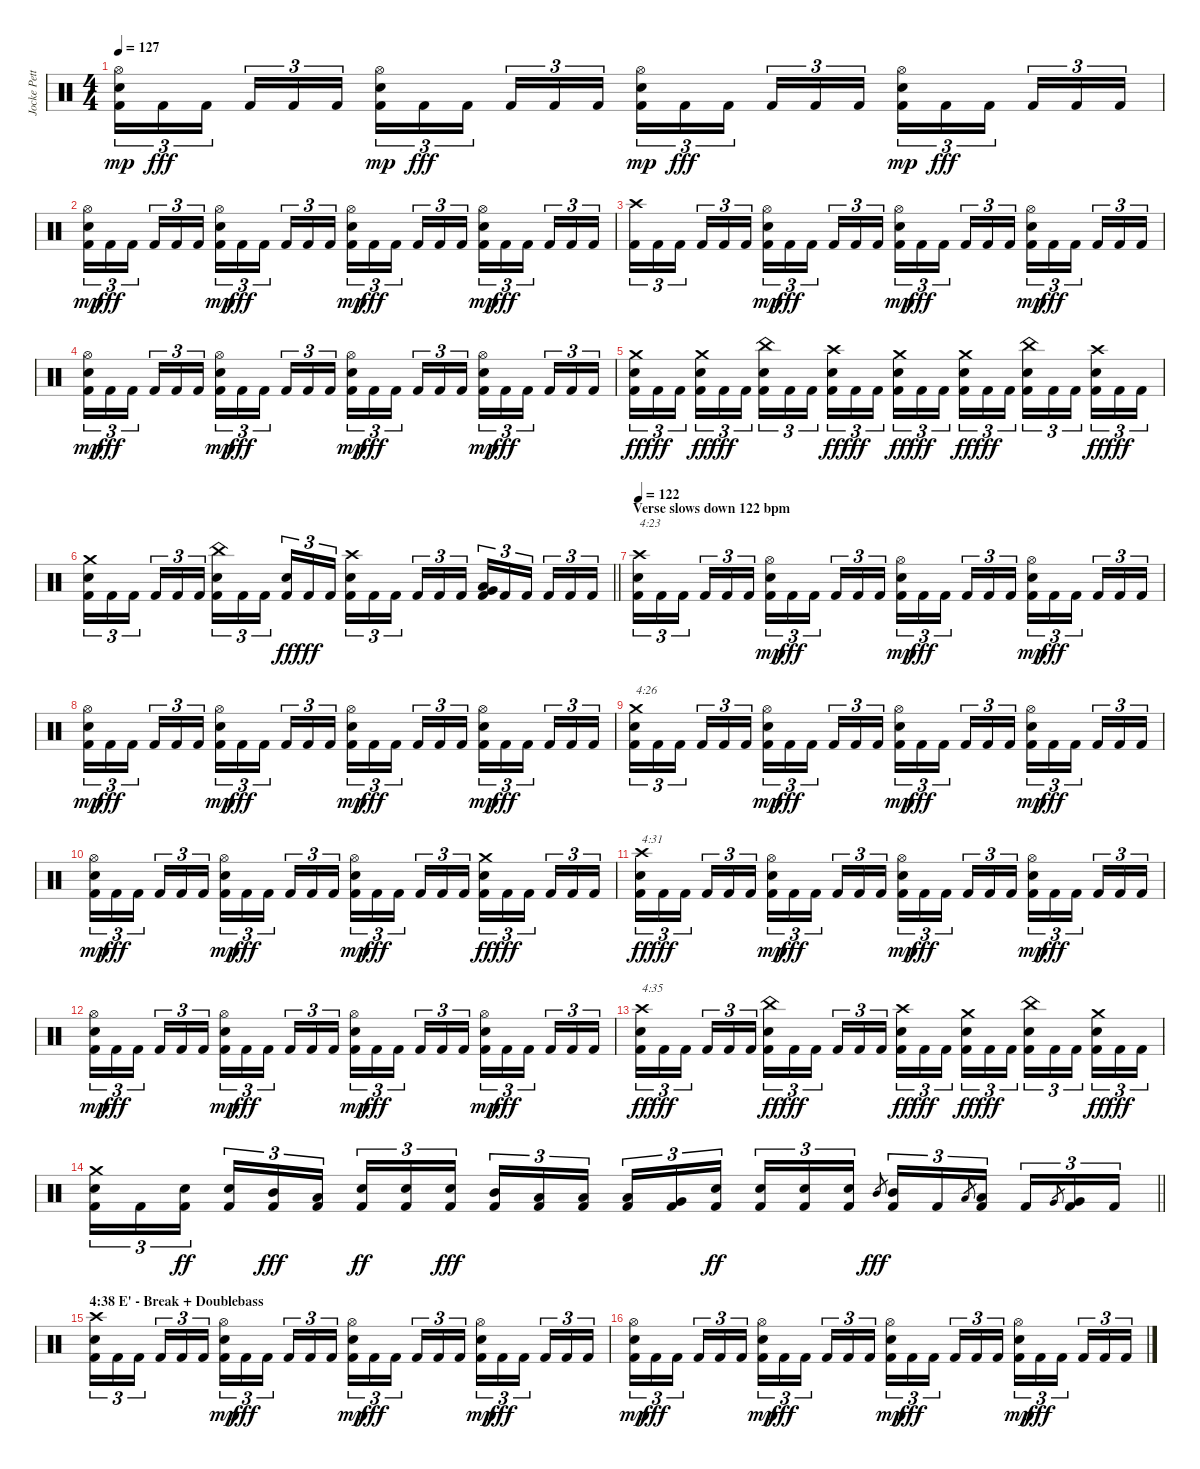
\track ("Jocke Pettersson" "Jocke Pett") {instrument percussion}
\staff {score}
\articulation defaults
\ts (4 4)
\tempo 127
\clef neutral
\ks c
("Kick (hit) 2" "Electric Snare (hit)" "Hi-Hat (open)").16{tu (3 2) dy mp} "Kick (hit) 2".16{tu (3 2) dy fff} "Kick (hit) 2".16{tu (3 2) beam splitsecondary} "Kick (hit) 2".16{tu (3 2)} "Kick (hit) 2".16{tu (3 2)} "Kick (hit) 2".16{tu (3 2)} ("Kick (hit) 2" "Electric Snare (hit)" "Hi-Hat (open)").16{tu (3 2) dy mp} "Kick (hit) 2".16{tu (3 2) dy fff} "Kick (hit) 2".16{tu (3 2) beam splitsecondary} "Kick (hit) 2".16{tu (3 2)} "Kick (hit) 2".16{tu (3 2)} "Kick (hit) 2".16{tu (3 2)} ("Kick (hit) 2" "Electric Snare (hit)" "Hi-Hat (open)").16{tu (3 2) dy mp} "Kick (hit) 2".16{tu (3 2) dy fff} "Kick (hit) 2".16{tu (3 2) beam splitsecondary} "Kick (hit) 2".16{tu (3 2)} "Kick (hit) 2".16{tu (3 2)} "Kick (hit) 2".16{tu (3 2)} ("Kick (hit) 2" "Electric Snare (hit)" "Hi-Hat (open)").16{tu (3 2) dy mp} "Kick (hit) 2".16{tu (3 2) dy fff} "Kick (hit) 2".16{tu (3 2) beam splitsecondary} "Kick (hit) 2".16{tu (3 2)} "Kick (hit) 2".16{tu (3 2)} "Kick (hit) 2".16{tu (3 2)} |
("Kick (hit) 2" "Electric Snare (hit)" "Hi-Hat (open)").16{tu (3 2) dy mp} "Kick (hit) 2".16{tu (3 2) dy fff} "Kick (hit) 2".16{tu (3 2) beam splitsecondary} "Kick (hit) 2".16{tu (3 2)} "Kick (hit) 2".16{tu (3 2)} "Kick (hit) 2".16{tu (3 2)} ("Kick (hit) 2" "Electric Snare (hit)" "Hi-Hat (open)").16{tu (3 2) dy mp} "Kick (hit) 2".16{tu (3 2) dy fff} "Kick (hit) 2".16{tu (3 2) beam splitsecondary} "Kick (hit) 2".16{tu (3 2)} "Kick (hit) 2".16{tu (3 2)} "Kick (hit) 2".16{tu (3 2)} ("Kick (hit) 2" "Electric Snare (hit)" "Hi-Hat (open)").16{tu (3 2) dy mp} "Kick (hit) 2".16{tu (3 2) dy fff} "Kick (hit) 2".16{tu (3 2) beam splitsecondary} "Kick (hit) 2".16{tu (3 2)} "Kick (hit) 2".16{tu (3 2)} "Kick (hit) 2".16{tu (3 2)} ("Kick (hit) 2" "Electric Snare (hit)" "Hi-Hat (open)").16{tu (3 2) dy mp} "Kick (hit) 2".16{tu (3 2) dy fff} "Kick (hit) 2".16{tu (3 2) beam splitsecondary} "Kick (hit) 2".16{tu (3 2)} "Kick (hit) 2".16{tu (3 2)} "Kick (hit) 2".16{tu (3 2)} |
("Kick (hit) 2" "Crash high (hit)").16{tu (3 2)} "Kick (hit) 2".16{tu (3 2)} "Kick (hit) 2".16{tu (3 2) beam splitsecondary} "Kick (hit) 2".16{tu (3 2)} "Kick (hit) 2".16{tu (3 2)} "Kick (hit) 2".16{tu (3 2)} ("Kick (hit) 2" "Electric Snare (hit)" "Hi-Hat (open)").16{tu (3 2) dy mp} "Kick (hit) 2".16{tu (3 2) dy fff} "Kick (hit) 2".16{tu (3 2) beam splitsecondary} "Kick (hit) 2".16{tu (3 2)} "Kick (hit) 2".16{tu (3 2)} "Kick (hit) 2".16{tu (3 2)} ("Kick (hit) 2" "Electric Snare (hit)" "Hi-Hat (open)").16{tu (3 2) dy mp} "Kick (hit) 2".16{tu (3 2) dy fff} "Kick (hit) 2".16{tu (3 2) beam splitsecondary} "Kick (hit) 2".16{tu (3 2)} "Kick (hit) 2".16{tu (3 2)} "Kick (hit) 2".16{tu (3 2)} ("Kick (hit) 2" "Electric Snare (hit)" "Hi-Hat (open)").16{tu (3 2) dy mp} "Kick (hit) 2".16{tu (3 2) dy fff} "Kick (hit) 2".16{tu (3 2) beam splitsecondary} "Kick (hit) 2".16{tu (3 2)} "Kick (hit) 2".16{tu (3 2)} "Kick (hit) 2".16{tu (3 2)} |
("Kick (hit) 2" "Electric Snare (hit)" "Hi-Hat (open)").16{tu (3 2) dy mp} "Kick (hit) 2".16{tu (3 2) dy fff} "Kick (hit) 2".16{tu (3 2) beam splitsecondary} "Kick (hit) 2".16{tu (3 2)} "Kick (hit) 2".16{tu (3 2)} "Kick (hit) 2".16{tu (3 2)} ("Kick (hit) 2" "Electric Snare (hit)" "Hi-Hat (open)").16{tu (3 2) dy mp} "Kick (hit) 2".16{tu (3 2) dy fff} "Kick (hit) 2".16{tu (3 2) beam splitsecondary} "Kick (hit) 2".16{tu (3 2)} "Kick (hit) 2".16{tu (3 2)} "Kick (hit) 2".16{tu (3 2)} ("Kick (hit) 2" "Electric Snare (hit)" "Hi-Hat (open)").16{tu (3 2) dy mp} "Kick (hit) 2".16{tu (3 2) dy fff} "Kick (hit) 2".16{tu (3 2) beam splitsecondary} "Kick (hit) 2".16{tu (3 2)} "Kick (hit) 2".16{tu (3 2)} "Kick (hit) 2".16{tu (3 2)} ("Kick (hit) 2" "Electric Snare (hit)" "Hi-Hat (open)").16{tu (3 2) dy mp} "Kick (hit) 2".16{tu (3 2) dy fff} "Kick (hit) 2".16{tu (3 2) beam splitsecondary} "Kick (hit) 2".16{tu (3 2)} "Kick (hit) 2".16{tu (3 2)} "Kick (hit) 2".16{tu (3 2)} |
("Kick (hit) 2" "Electric Snare (hit)" "Crash medium (hit)").16{tu (3 2) dy ff} "Kick (hit) 2".16{tu (3 2) dy fff} "Kick (hit) 2".16{tu (3 2) beam splitsecondary} ("Kick (hit) 2" "Electric Snare (hit)" "Crash medium (hit)").16{tu (3 2) dy ff} "Kick (hit) 2".16{tu (3 2) dy fff} "Kick (hit) 2".16{tu (3 2)} ("Kick (hit) 2" "Electric Snare (hit)" "China (hit)").16{tu (3 2)} "Kick (hit) 2".16{tu (3 2)} "Kick (hit) 2".16{tu (3 2) beam splitsecondary} ("Kick (hit) 2" "Electric Snare (hit)" "Crash high (hit)").16{tu (3 2) dy ff} "Kick (hit) 2".16{tu (3 2) dy fff} "Kick (hit) 2".16{tu (3 2)} ("Kick (hit) 2" "Electric Snare (hit)" "Crash medium (hit)").16{tu (3 2) dy ff} "Kick (hit) 2".16{tu (3 2) dy fff} "Kick (hit) 2".16{tu (3 2) beam splitsecondary} ("Kick (hit) 2" "Electric Snare (hit)" "Crash medium (hit)").16{tu (3 2) dy ff} "Kick (hit) 2".16{tu (3 2) dy fff} "Kick (hit) 2".16{tu (3 2)} ("Kick (hit) 2" "Electric Snare (hit)" "China (hit)").16{tu (3 2)} "Kick (hit) 2".16{tu (3 2)} "Kick (hit) 2".16{tu (3 2) beam splitsecondary} ("Kick (hit) 2" "Electric Snare (hit)" "Crash high (hit)").16{tu (3 2) dy ff} "Kick (hit) 2".16{tu (3 2) dy fff} "Kick (hit) 2".16{tu (3 2)} |
\barLineRight lightlight
("Kick (hit) 2" "Electric Snare (hit)" "Crash medium (hit)").16{tu (3 2)} "Kick (hit) 2".16{tu (3 2)} "Kick (hit) 2".16{tu (3 2) beam splitsecondary} "Kick (hit) 2".16{tu (3 2)} "Kick (hit) 2".16{tu (3 2)} "Kick (hit) 2".16{tu (3 2)} ("Kick (hit) 2" "Electric Snare (hit)" "China (hit)").16{tu (3 2)} "Kick (hit) 2".16{tu (3 2)} "Kick (hit) 2".16{tu (3 2) beam splitsecondary} ("Kick (hit) 2" "Electric Snare (hit)").16{tu (3 2) dy ff} "Kick (hit) 2".16{tu (3 2) dy fff} "Kick (hit) 2".16{tu (3 2)} ("Kick (hit) 2" "Electric Snare (hit)" "Crash high (hit)").16{tu (3 2)} "Kick (hit) 2".16{tu (3 2)} "Kick (hit) 2".16{tu (3 2) beam splitsecondary} "Kick (hit) 2".16{tu (3 2)} "Kick (hit) 2".16{tu (3 2)} "Kick (hit) 2".16{tu (3 2)} ("Kick (hit) 2" "Low Tom (hit)" "Very Low Tom (hit)").16{tu (3 2)} "Kick (hit) 2".16{tu (3 2)} "Kick (hit) 2".16{tu (3 2) beam splitsecondary} "Kick (hit) 2".16{tu (3 2)} "Kick (hit) 2".16{tu (3 2)} "Kick (hit) 2".16{tu (3 2)} |
\section ("" "Verse slows down 122 bpm")
\tempo 122
("Kick (hit) 2" "Electric Snare (hit)" "Crash high (hit)").16{tu (3 2) txt "4:23"} "Kick (hit) 2".16{tu (3 2)} "Kick (hit) 2".16{tu (3 2) beam splitsecondary} "Kick (hit) 2".16{tu (3 2)} "Kick (hit) 2".16{tu (3 2)} "Kick (hit) 2".16{tu (3 2)} ("Kick (hit) 2" "Electric Snare (hit)" "Hi-Hat (open)").16{tu (3 2) dy mp} "Kick (hit) 2".16{tu (3 2) dy fff} "Kick (hit) 2".16{tu (3 2) beam splitsecondary} "Kick (hit) 2".16{tu (3 2)} "Kick (hit) 2".16{tu (3 2)} "Kick (hit) 2".16{tu (3 2)} ("Kick (hit) 2" "Electric Snare (hit)" "Hi-Hat (open)").16{tu (3 2) dy mp} "Kick (hit) 2".16{tu (3 2) dy fff} "Kick (hit) 2".16{tu (3 2) beam splitsecondary} "Kick (hit) 2".16{tu (3 2)} "Kick (hit) 2".16{tu (3 2)} "Kick (hit) 2".16{tu (3 2)} ("Kick (hit) 2" "Electric Snare (hit)" "Hi-Hat (open)").16{tu (3 2) dy mp} "Kick (hit) 2".16{tu (3 2) dy fff} "Kick (hit) 2".16{tu (3 2) beam splitsecondary} "Kick (hit) 2".16{tu (3 2)} "Kick (hit) 2".16{tu (3 2)} "Kick (hit) 2".16{tu (3 2)} |
("Kick (hit) 2" "Electric Snare (hit)" "Hi-Hat (open)").16{tu (3 2) dy mp} "Kick (hit) 2".16{tu (3 2) dy fff} "Kick (hit) 2".16{tu (3 2) beam splitsecondary} "Kick (hit) 2".16{tu (3 2)} "Kick (hit) 2".16{tu (3 2)} "Kick (hit) 2".16{tu (3 2)} ("Kick (hit) 2" "Electric Snare (hit)" "Hi-Hat (open)").16{tu (3 2) dy mp} "Kick (hit) 2".16{tu (3 2) dy fff} "Kick (hit) 2".16{tu (3 2) beam splitsecondary} "Kick (hit) 2".16{tu (3 2)} "Kick (hit) 2".16{tu (3 2)} "Kick (hit) 2".16{tu (3 2)} ("Kick (hit) 2" "Electric Snare (hit)" "Hi-Hat (open)").16{tu (3 2) dy mp} "Kick (hit) 2".16{tu (3 2) dy fff} "Kick (hit) 2".16{tu (3 2) beam splitsecondary} "Kick (hit) 2".16{tu (3 2)} "Kick (hit) 2".16{tu (3 2)} "Kick (hit) 2".16{tu (3 2)} ("Kick (hit) 2" "Electric Snare (hit)" "Hi-Hat (open)").16{tu (3 2) dy mp} "Kick (hit) 2".16{tu (3 2) dy fff} "Kick (hit) 2".16{tu (3 2) beam splitsecondary} "Kick (hit) 2".16{tu (3 2)} "Kick (hit) 2".16{tu (3 2)} "Kick (hit) 2".16{tu (3 2)} |
("Kick (hit) 2" "Electric Snare (hit)" "Crash medium (hit)").16{tu (3 2) txt "4:26"} "Kick (hit) 2".16{tu (3 2)} "Kick (hit) 2".16{tu (3 2) beam splitsecondary} "Kick (hit) 2".16{tu (3 2)} "Kick (hit) 2".16{tu (3 2)} "Kick (hit) 2".16{tu (3 2)} ("Kick (hit) 2" "Electric Snare (hit)" "Hi-Hat (open)").16{tu (3 2) dy mp} "Kick (hit) 2".16{tu (3 2) dy fff} "Kick (hit) 2".16{tu (3 2) beam splitsecondary} "Kick (hit) 2".16{tu (3 2)} "Kick (hit) 2".16{tu (3 2)} "Kick (hit) 2".16{tu (3 2)} ("Kick (hit) 2" "Electric Snare (hit)" "Hi-Hat (open)").16{tu (3 2) dy mp} "Kick (hit) 2".16{tu (3 2) dy fff} "Kick (hit) 2".16{tu (3 2) beam splitsecondary} "Kick (hit) 2".16{tu (3 2)} "Kick (hit) 2".16{tu (3 2)} "Kick (hit) 2".16{tu (3 2)} ("Kick (hit) 2" "Electric Snare (hit)" "Hi-Hat (open)").16{tu (3 2) dy mp} "Kick (hit) 2".16{tu (3 2) dy fff} "Kick (hit) 2".16{tu (3 2) beam splitsecondary} "Kick (hit) 2".16{tu (3 2)} "Kick (hit) 2".16{tu (3 2)} "Kick (hit) 2".16{tu (3 2)} |
("Kick (hit) 2" "Electric Snare (hit)" "Hi-Hat (open)").16{tu (3 2) dy mp} "Kick (hit) 2".16{tu (3 2) dy fff} "Kick (hit) 2".16{tu (3 2) beam splitsecondary} "Kick (hit) 2".16{tu (3 2)} "Kick (hit) 2".16{tu (3 2)} "Kick (hit) 2".16{tu (3 2)} ("Kick (hit) 2" "Electric Snare (hit)" "Hi-Hat (open)").16{tu (3 2) dy mp} "Kick (hit) 2".16{tu (3 2) dy fff} "Kick (hit) 2".16{tu (3 2) beam splitsecondary} "Kick (hit) 2".16{tu (3 2)} "Kick (hit) 2".16{tu (3 2)} "Kick (hit) 2".16{tu (3 2)} ("Kick (hit) 2" "Electric Snare (hit)" "Hi-Hat (open)").16{tu (3 2) dy mp} "Kick (hit) 2".16{tu (3 2) dy fff} "Kick (hit) 2".16{tu (3 2) beam splitsecondary} "Kick (hit) 2".16{tu (3 2)} "Kick (hit) 2".16{tu (3 2)} "Kick (hit) 2".16{tu (3 2)} ("Kick (hit) 2" "Electric Snare (hit)" "Crash medium (hit)").16{tu (3 2) dy ff} "Kick (hit) 2".16{tu (3 2) dy fff} "Kick (hit) 2".16{tu (3 2) beam splitsecondary} "Kick (hit) 2".16{tu (3 2)} "Kick (hit) 2".16{tu (3 2)} "Kick (hit) 2".16{tu (3 2)} |
("Kick (hit) 2" "Electric Snare (hit)" "Crash high (hit)").16{tu (3 2) txt "4:31" dy ff} "Kick (hit) 2".16{tu (3 2) dy fff} "Kick (hit) 2".16{tu (3 2) beam splitsecondary} "Kick (hit) 2".16{tu (3 2)} "Kick (hit) 2".16{tu (3 2)} "Kick (hit) 2".16{tu (3 2)} ("Kick (hit) 2" "Electric Snare (hit)" "Hi-Hat (open)").16{tu (3 2) dy mp} "Kick (hit) 2".16{tu (3 2) dy fff} "Kick (hit) 2".16{tu (3 2) beam splitsecondary} "Kick (hit) 2".16{tu (3 2)} "Kick (hit) 2".16{tu (3 2)} "Kick (hit) 2".16{tu (3 2)} ("Kick (hit) 2" "Electric Snare (hit)" "Hi-Hat (open)").16{tu (3 2) dy mp} "Kick (hit) 2".16{tu (3 2) dy fff} "Kick (hit) 2".16{tu (3 2) beam splitsecondary} "Kick (hit) 2".16{tu (3 2)} "Kick (hit) 2".16{tu (3 2)} "Kick (hit) 2".16{tu (3 2)} ("Kick (hit) 2" "Electric Snare (hit)" "Hi-Hat (open)").16{tu (3 2) dy mp} "Kick (hit) 2".16{tu (3 2) dy fff} "Kick (hit) 2".16{tu (3 2) beam splitsecondary} "Kick (hit) 2".16{tu (3 2)} "Kick (hit) 2".16{tu (3 2)} "Kick (hit) 2".16{tu (3 2)} |
("Kick (hit) 2" "Electric Snare (hit)" "Hi-Hat (open)").16{tu (3 2) dy mp} "Kick (hit) 2".16{tu (3 2) dy fff} "Kick (hit) 2".16{tu (3 2) beam splitsecondary} "Kick (hit) 2".16{tu (3 2)} "Kick (hit) 2".16{tu (3 2)} "Kick (hit) 2".16{tu (3 2)} ("Kick (hit) 2" "Electric Snare (hit)" "Hi-Hat (open)").16{tu (3 2) dy mp} "Kick (hit) 2".16{tu (3 2) dy fff} "Kick (hit) 2".16{tu (3 2) beam splitsecondary} "Kick (hit) 2".16{tu (3 2)} "Kick (hit) 2".16{tu (3 2)} "Kick (hit) 2".16{tu (3 2)} ("Kick (hit) 2" "Electric Snare (hit)" "Hi-Hat (open)").16{tu (3 2) dy mp} "Kick (hit) 2".16{tu (3 2) dy fff} "Kick (hit) 2".16{tu (3 2) beam splitsecondary} "Kick (hit) 2".16{tu (3 2)} "Kick (hit) 2".16{tu (3 2)} "Kick (hit) 2".16{tu (3 2)} ("Kick (hit) 2" "Electric Snare (hit)" "Hi-Hat (open)").16{tu (3 2) dy mp} "Kick (hit) 2".16{tu (3 2) dy fff} "Kick (hit) 2".16{tu (3 2) beam splitsecondary} "Kick (hit) 2".16{tu (3 2)} "Kick (hit) 2".16{tu (3 2)} "Kick (hit) 2".16{tu (3 2)} |
("Kick (hit) 2" "Electric Snare (hit)" "Crash high (hit)").16{tu (3 2) txt "4:35" dy ff} "Kick (hit) 2".16{tu (3 2) dy fff} "Kick (hit) 2".16{tu (3 2) beam splitsecondary} "Kick (hit) 2".16{tu (3 2)} "Kick (hit) 2".16{tu (3 2)} "Kick (hit) 2".16{tu (3 2)} ("Kick (hit) 2" "Electric Snare (hit)" "China (hit)").16{tu (3 2) dy ff} "Kick (hit) 2".16{tu (3 2) dy fff} "Kick (hit) 2".16{tu (3 2) beam splitsecondary} "Kick (hit) 2".16{tu (3 2)} "Kick (hit) 2".16{tu (3 2)} "Kick (hit) 2".16{tu (3 2)} ("Kick (hit) 2" "Electric Snare (hit)" "Crash high (hit)").16{tu (3 2) dy ff} "Kick (hit) 2".16{tu (3 2) dy fff} "Kick (hit) 2".16{tu (3 2) beam splitsecondary} ("Kick (hit) 2" "Electric Snare (hit)" "Crash medium (hit)").16{tu (3 2) dy ff} "Kick (hit) 2".16{tu (3 2) dy fff} "Kick (hit) 2".16{tu (3 2)} ("Kick (hit) 2" "Electric Snare (hit)" "China (hit)").16{tu (3 2)} "Kick (hit) 2".16{tu (3 2)} "Kick (hit) 2".16{tu (3 2) beam splitsecondary} ("Kick (hit) 2" "Electric Snare (hit)" "Crash medium (hit)").16{tu (3 2) dy ff} "Kick (hit) 2".16{tu (3 2) dy fff} "Kick (hit) 2".16{tu (3 2)} |
\barLineRight lightlight
("Kick (hit) 2" "Electric Snare (hit)" "Crash medium (hit)").16{tu (3 2)} "Kick (hit) 2".16{tu (3 2)} ("Kick (hit) 2" "Electric Snare (hit)").16{tu (3 2) dy ff beam splitsecondary} ("Kick (hit) 2" "Electric Snare (hit)").16{tu (3 2)} ("Kick (hit) 2" "Mid Tom (hit)").16{tu (3 2) dy fff} ("Kick (hit) 2" "Low Tom (hit)").16{tu (3 2)} ("Kick (hit) 2" "Electric Snare (hit)").16{tu (3 2) dy ff} ("Kick (hit) 2" "Electric Snare (hit)").16{tu (3 2)} ("Kick (hit) 2" "Electric Snare (hit)").16{tu (3 2) dy fff beam splitsecondary} ("Kick (hit) 2" "Mid Tom (hit)").16{tu (3 2)} ("Kick (hit) 2" "Low Tom (hit)").16{tu (3 2)} ("Kick (hit) 2" "Low Tom (hit)").16{tu (3 2)} ("Kick (hit) 2" "Low Tom (hit)").16{tu (3 2)} ("Kick (hit) 2" "Very Low Tom (hit)").16{tu (3 2)} ("Kick (hit) 2" "Electric Snare (hit)").16{tu (3 2) dy ff beam splitsecondary} ("Kick (hit) 2" "Electric Snare (hit)").16{tu (3 2)} ("Kick (hit) 2" "Electric Snare (hit)").16{tu (3 2)} ("Kick (hit) 2" "Electric Snare (hit)").16{tu (3 2)} "Mid Tom (hit)".8{gr dy fff} ("Kick (hit) 2" "Mid Tom (hit)").16{tu (3 2)} "Kick (hit) 2".16{tu (3 2)} "Low Tom (hit)".8{gr} ("Kick (hit) 2" "Low Tom (hit)").16{tu (3 2) beam splitsecondary} "Kick (hit) 2".16{tu (3 2)} "Very Low Tom (hit)".8{gr} ("Kick (hit) 2" "Very Low Tom (hit)").16{tu (3 2)} "Kick (hit) 2".16{tu (3 2)} |
\section ("" "4:38 E' - Break + Doublebass")
("Kick (hit) 2" "Electric Snare (hit)" "Crash high (hit)").16{tu (3 2)} "Kick (hit) 2".16{tu (3 2)} "Kick (hit) 2".16{tu (3 2) beam splitsecondary} "Kick (hit) 2".16{tu (3 2)} "Kick (hit) 2".16{tu (3 2)} "Kick (hit) 2".16{tu (3 2)} ("Kick (hit) 2" "Electric Snare (hit)" "Hi-Hat (open)").16{tu (3 2) dy mp} "Kick (hit) 2".16{tu (3 2) dy fff} "Kick (hit) 2".16{tu (3 2) beam splitsecondary} "Kick (hit) 2".16{tu (3 2)} "Kick (hit) 2".16{tu (3 2)} "Kick (hit) 2".16{tu (3 2)} ("Kick (hit) 2" "Electric Snare (hit)" "Hi-Hat (open)").16{tu (3 2) dy mp} "Kick (hit) 2".16{tu (3 2) dy fff} "Kick (hit) 2".16{tu (3 2) beam splitsecondary} "Kick (hit) 2".16{tu (3 2)} "Kick (hit) 2".16{tu (3 2)} "Kick (hit) 2".16{tu (3 2)} ("Kick (hit) 2" "Electric Snare (hit)" "Hi-Hat (open)").16{tu (3 2) dy mp} "Kick (hit) 2".16{tu (3 2) dy fff} "Kick (hit) 2".16{tu (3 2) beam splitsecondary} "Kick (hit) 2".16{tu (3 2)} "Kick (hit) 2".16{tu (3 2)} "Kick (hit) 2".16{tu (3 2)} |
("Kick (hit) 2" "Electric Snare (hit)" "Hi-Hat (open)").16{tu (3 2) dy mp} "Kick (hit) 2".16{tu (3 2) dy fff} "Kick (hit) 2".16{tu (3 2) beam splitsecondary} "Kick (hit) 2".16{tu (3 2)} "Kick (hit) 2".16{tu (3 2)} "Kick (hit) 2".16{tu (3 2)} ("Kick (hit) 2" "Electric Snare (hit)" "Hi-Hat (open)").16{tu (3 2) dy mp} "Kick (hit) 2".16{tu (3 2) dy fff} "Kick (hit) 2".16{tu (3 2) beam splitsecondary} "Kick (hit) 2".16{tu (3 2)} "Kick (hit) 2".16{tu (3 2)} "Kick (hit) 2".16{tu (3 2)} ("Kick (hit) 2" "Electric Snare (hit)" "Hi-Hat (open)").16{tu (3 2) dy mp} "Kick (hit) 2".16{tu (3 2) dy fff} "Kick (hit) 2".16{tu (3 2) beam splitsecondary} "Kick (hit) 2".16{tu (3 2)} "Kick (hit) 2".16{tu (3 2)} "Kick (hit) 2".16{tu (3 2)} ("Kick (hit) 2" "Electric Snare (hit)" "Hi-Hat (open)").16{tu (3 2) dy mp} "Kick (hit) 2".16{tu (3 2) dy fff} "Kick (hit) 2".16{tu (3 2) beam splitsecondary} "Kick (hit) 2".16{tu (3 2)} "Kick (hit) 2".16{tu (3 2)} "Kick (hit) 2".16{tu (3 2)}
